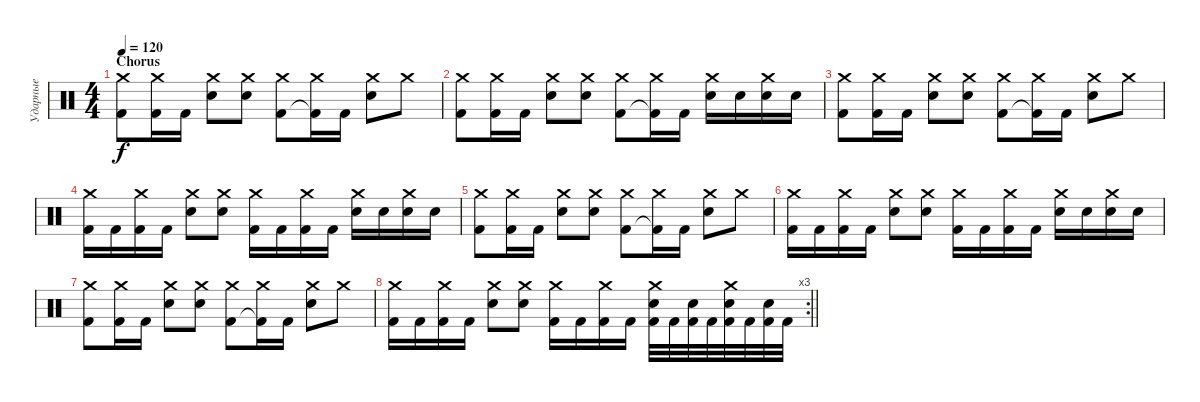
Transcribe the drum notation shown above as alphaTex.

\track ("Ударные" "Ударные") {instrument percussion}
\staff {score}
\articulation defaults
\ts (4 4)
\section ("" "Chorus")
\tempo 120
\clef neutral
\ks c
("Crash medium (hit)" "Kick (hit) 2").8{dy f} ("Crash medium (hit)" "Kick (hit) 2").16 "Kick (hit) 2".16 ("Crash medium (hit)" "Electric Snare (hit)").8 ("Crash medium (hit)" "Electric Snare (hit)").8 ("Crash medium (hit)" "Kick (hit) 2").8 ("Crash medium (hit)" "Kick (hit) 2"{t}).16 "Kick (hit) 2".16 ("Crash medium (hit)" "Electric Snare (hit)").8 "Crash medium (hit)".8 |
("Crash medium (hit)" "Kick (hit) 2").8 ("Crash medium (hit)" "Kick (hit) 2").16 "Kick (hit) 2".16 ("Crash medium (hit)" "Electric Snare (hit)").8 ("Crash medium (hit)" "Electric Snare (hit)").8 ("Crash medium (hit)" "Kick (hit) 2").8 ("Crash medium (hit)" "Kick (hit) 2"{t}).16 "Kick (hit) 2".16 ("Crash medium (hit)" "Electric Snare (hit)").16 "Electric Snare (hit)".16 ("Crash medium (hit)" "Electric Snare (hit)").16 "Electric Snare (hit)".16 |
("Crash medium (hit)" "Kick (hit) 2").8 ("Crash medium (hit)" "Kick (hit) 2").16 "Kick (hit) 2".16 ("Crash medium (hit)" "Electric Snare (hit)").8 ("Crash medium (hit)" "Electric Snare (hit)").8 ("Crash medium (hit)" "Kick (hit) 2").8 ("Crash medium (hit)" "Kick (hit) 2"{t}).16 "Kick (hit) 2".16 ("Crash medium (hit)" "Electric Snare (hit)").8 "Crash medium (hit)".8 |
("Crash medium (hit)" "Kick (hit) 2").16 "Kick (hit) 2".16 ("Crash medium (hit)" "Kick (hit) 2").16 "Kick (hit) 2".16 ("Crash medium (hit)" "Electric Snare (hit)").8 ("Crash medium (hit)" "Electric Snare (hit)").8 ("Crash medium (hit)" "Kick (hit) 2").16 "Kick (hit) 2".16 ("Crash medium (hit)" "Kick (hit) 2").16 "Kick (hit) 2".16 ("Crash medium (hit)" "Electric Snare (hit)").16 "Electric Snare (hit)".16 ("Crash medium (hit)" "Electric Snare (hit)").16 "Electric Snare (hit)".16 |
("Crash medium (hit)" "Kick (hit) 2").8 ("Crash medium (hit)" "Kick (hit) 2").16 "Kick (hit) 2".16 ("Crash medium (hit)" "Electric Snare (hit)").8 ("Crash medium (hit)" "Electric Snare (hit)").8 ("Crash medium (hit)" "Kick (hit) 2").8 ("Crash medium (hit)" "Kick (hit) 2"{t}).16 "Kick (hit) 2".16 ("Crash medium (hit)" "Electric Snare (hit)").8 "Crash medium (hit)".8 |
("Crash medium (hit)" "Kick (hit) 2").16 "Kick (hit) 2".16 ("Crash medium (hit)" "Kick (hit) 2").16 "Kick (hit) 2".16 ("Crash medium (hit)" "Electric Snare (hit)").8 ("Crash medium (hit)" "Electric Snare (hit)").8 ("Crash medium (hit)" "Kick (hit) 2").16 "Kick (hit) 2".16 ("Crash medium (hit)" "Kick (hit) 2").16 "Kick (hit) 2".16 ("Crash medium (hit)" "Electric Snare (hit)").16 "Electric Snare (hit)".16 ("Crash medium (hit)" "Electric Snare (hit)").16 "Electric Snare (hit)".16 |
("Crash medium (hit)" "Kick (hit) 2").8 ("Crash medium (hit)" "Kick (hit) 2").16 "Kick (hit) 2".16 ("Crash medium (hit)" "Electric Snare (hit)").8 ("Crash medium (hit)" "Electric Snare (hit)").8 ("Crash medium (hit)" "Kick (hit) 2").8 ("Crash medium (hit)" "Kick (hit) 2"{t}).16 "Kick (hit) 2".16 ("Crash medium (hit)" "Electric Snare (hit)").8 "Crash medium (hit)".8 |
\rc 3
\barLineRight lightlight
("Crash medium (hit)" "Kick (hit) 2").16 "Kick (hit) 2".16 ("Crash medium (hit)" "Kick (hit) 2").16 "Kick (hit) 2".16 ("Crash medium (hit)" "Electric Snare (hit)").8 ("Crash medium (hit)" "Electric Snare (hit)").8 ("Crash medium (hit)" "Kick (hit) 2").16 "Kick (hit) 2".16 ("Crash medium (hit)" "Kick (hit) 2").16 "Kick (hit) 2".16 ("Crash medium (hit)" "Electric Snare (hit)" "Kick (hit) 2").32 "Kick (hit) 2".32 ("Electric Snare (hit)" "Kick (hit) 2").32 "Kick (hit) 2".32 ("Crash medium (hit)" "Electric Snare (hit)" "Kick (hit) 2").32 "Kick (hit) 2".32 ("Electric Snare (hit)" "Kick (hit) 2").32 "Kick (hit) 2".32
